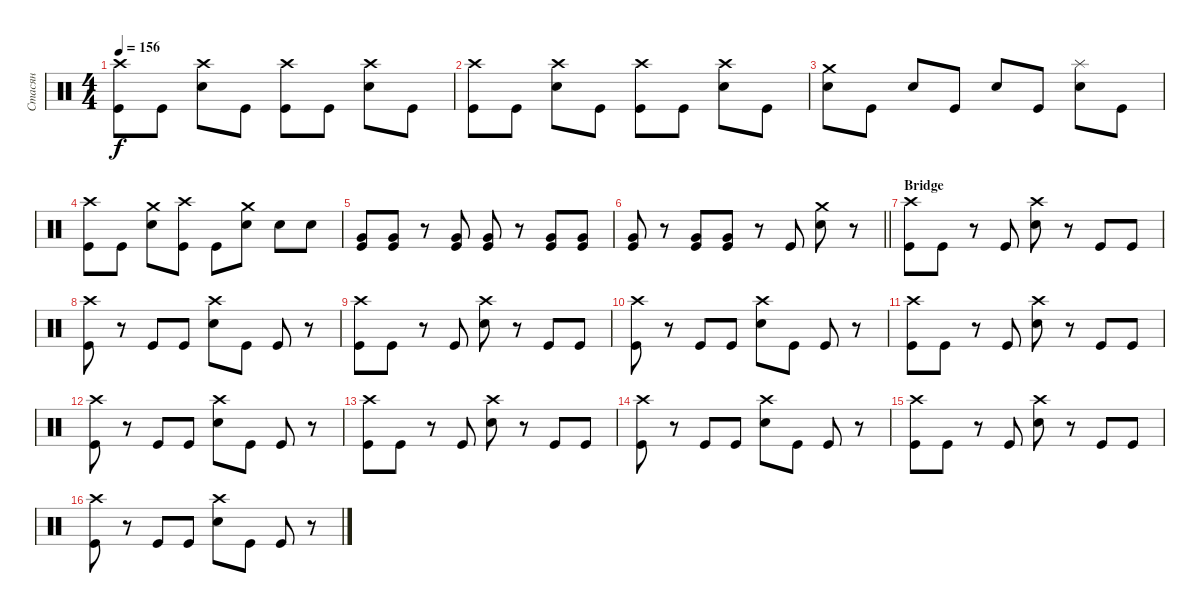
\track ("Стасян" "Стасян") {instrument percussion}
\staff
\articulation defaults
\ts (4 4)
\tempo 156
\clef neutral
\ks c
("Crash high (hit)" "Kick (hit)").8{dy f} "Kick (hit)".8 ("Crash high (hit)" "Snare (hit) 2").8 "Kick (hit)".8 ("Crash high (hit)" "Kick (hit)").8 "Kick (hit)".8 ("Crash high (hit)" "Snare (hit) 2").8 "Kick (hit)".8 |
("Crash high (hit)" "Kick (hit)").8 "Kick (hit)".8 ("Crash high (hit)" "Snare (hit) 2").8 "Kick (hit)".8 ("Crash high (hit)" "Kick (hit)").8 "Kick (hit)".8 ("Crash high (hit)" "Snare (hit) 2").8 "Kick (hit)".8 |
("Snare (hit) 2" "Crash medium (hit)").8 "Kick (hit)".8 "Snare (hit) 2".8 "Kick (hit)".8 "Snare (hit) 2".8 "Kick (hit)".8 ("Snare (hit) 2" "Splash (hit)").8 "Kick (hit)".8 |
("Crash high (hit)" "Kick (hit)").8 "Kick (hit)".8 ("Snare (hit) 2" "Crash medium (hit)").8 ("Kick (hit)" "Crash high (hit)").8 "Kick (hit)".8 ("Snare (hit) 2" "Crash medium (hit)").8 "Snare (hit) 2".8 "Snare (hit) 2".8 |
("Kick (hit)" "Very Low Tom (hit)").8 ("Very Low Tom (hit)" "Kick (hit)").8 r.8 ("Kick (hit)" "Very Low Tom (hit)").8 ("Kick (hit)" "Very Low Tom (hit)").8 r.8 ("Kick (hit)" "Very Low Tom (hit)").8 ("Kick (hit)" "Very Low Tom (hit)").8 |
\barLineRight lightlight
("Kick (hit)" "Very Low Tom (hit)").8 r.8 ("Kick (hit)" "Very Low Tom (hit)").8 ("Kick (hit)" "Very Low Tom (hit)").8 r.8 "Kick (hit)".8 ("Snare (hit) 2" "Crash medium (hit)").8 r.8 |
\section ("" "Bridge")
("Crash high (hit)" "Kick (hit)").8 "Kick (hit)".8 r.8 "Kick (hit)".8 ("Crash high (hit)" "Snare (hit) 2").8 r.8 "Kick (hit)".8 "Kick (hit)".8 |
("Crash high (hit)" "Kick (hit)").8 r.8 "Kick (hit)".8 "Kick (hit)".8 ("Crash high (hit)" "Snare (hit) 2").8 "Kick (hit)".8 "Kick (hit)".8 r.8 |
("Crash high (hit)" "Kick (hit)").8 "Kick (hit)".8 r.8 "Kick (hit)".8 ("Crash high (hit)" "Snare (hit) 2").8 r.8 "Kick (hit)".8 "Kick (hit)".8 |
("Crash high (hit)" "Kick (hit)").8 r.8 "Kick (hit)".8 "Kick (hit)".8 ("Crash high (hit)" "Snare (hit) 2").8 "Kick (hit)".8 "Kick (hit)".8 r.8 |
("Crash high (hit)" "Kick (hit)").8 "Kick (hit)".8 r.8 "Kick (hit)".8 ("Crash high (hit)" "Snare (hit) 2").8 r.8 "Kick (hit)".8 "Kick (hit)".8 |
("Crash high (hit)" "Kick (hit)").8 r.8 "Kick (hit)".8 "Kick (hit)".8 ("Crash high (hit)" "Snare (hit) 2").8 "Kick (hit)".8 "Kick (hit)".8 r.8 |
("Crash high (hit)" "Kick (hit)").8 "Kick (hit)".8 r.8 "Kick (hit)".8 ("Crash high (hit)" "Snare (hit) 2").8 r.8 "Kick (hit)".8 "Kick (hit)".8 |
("Crash high (hit)" "Kick (hit)").8 r.8 "Kick (hit)".8 "Kick (hit)".8 ("Crash high (hit)" "Snare (hit) 2").8 "Kick (hit)".8 "Kick (hit)".8 r.8 |
("Crash high (hit)" "Kick (hit)").8 "Kick (hit)".8 r.8 "Kick (hit)".8 ("Crash high (hit)" "Snare (hit) 2").8 r.8 "Kick (hit)".8 "Kick (hit)".8 |
("Crash high (hit)" "Kick (hit)").8 r.8 "Kick (hit)".8 "Kick (hit)".8 ("Crash high (hit)" "Snare (hit) 2").8 "Kick (hit)".8 "Kick (hit)".8 r.8
